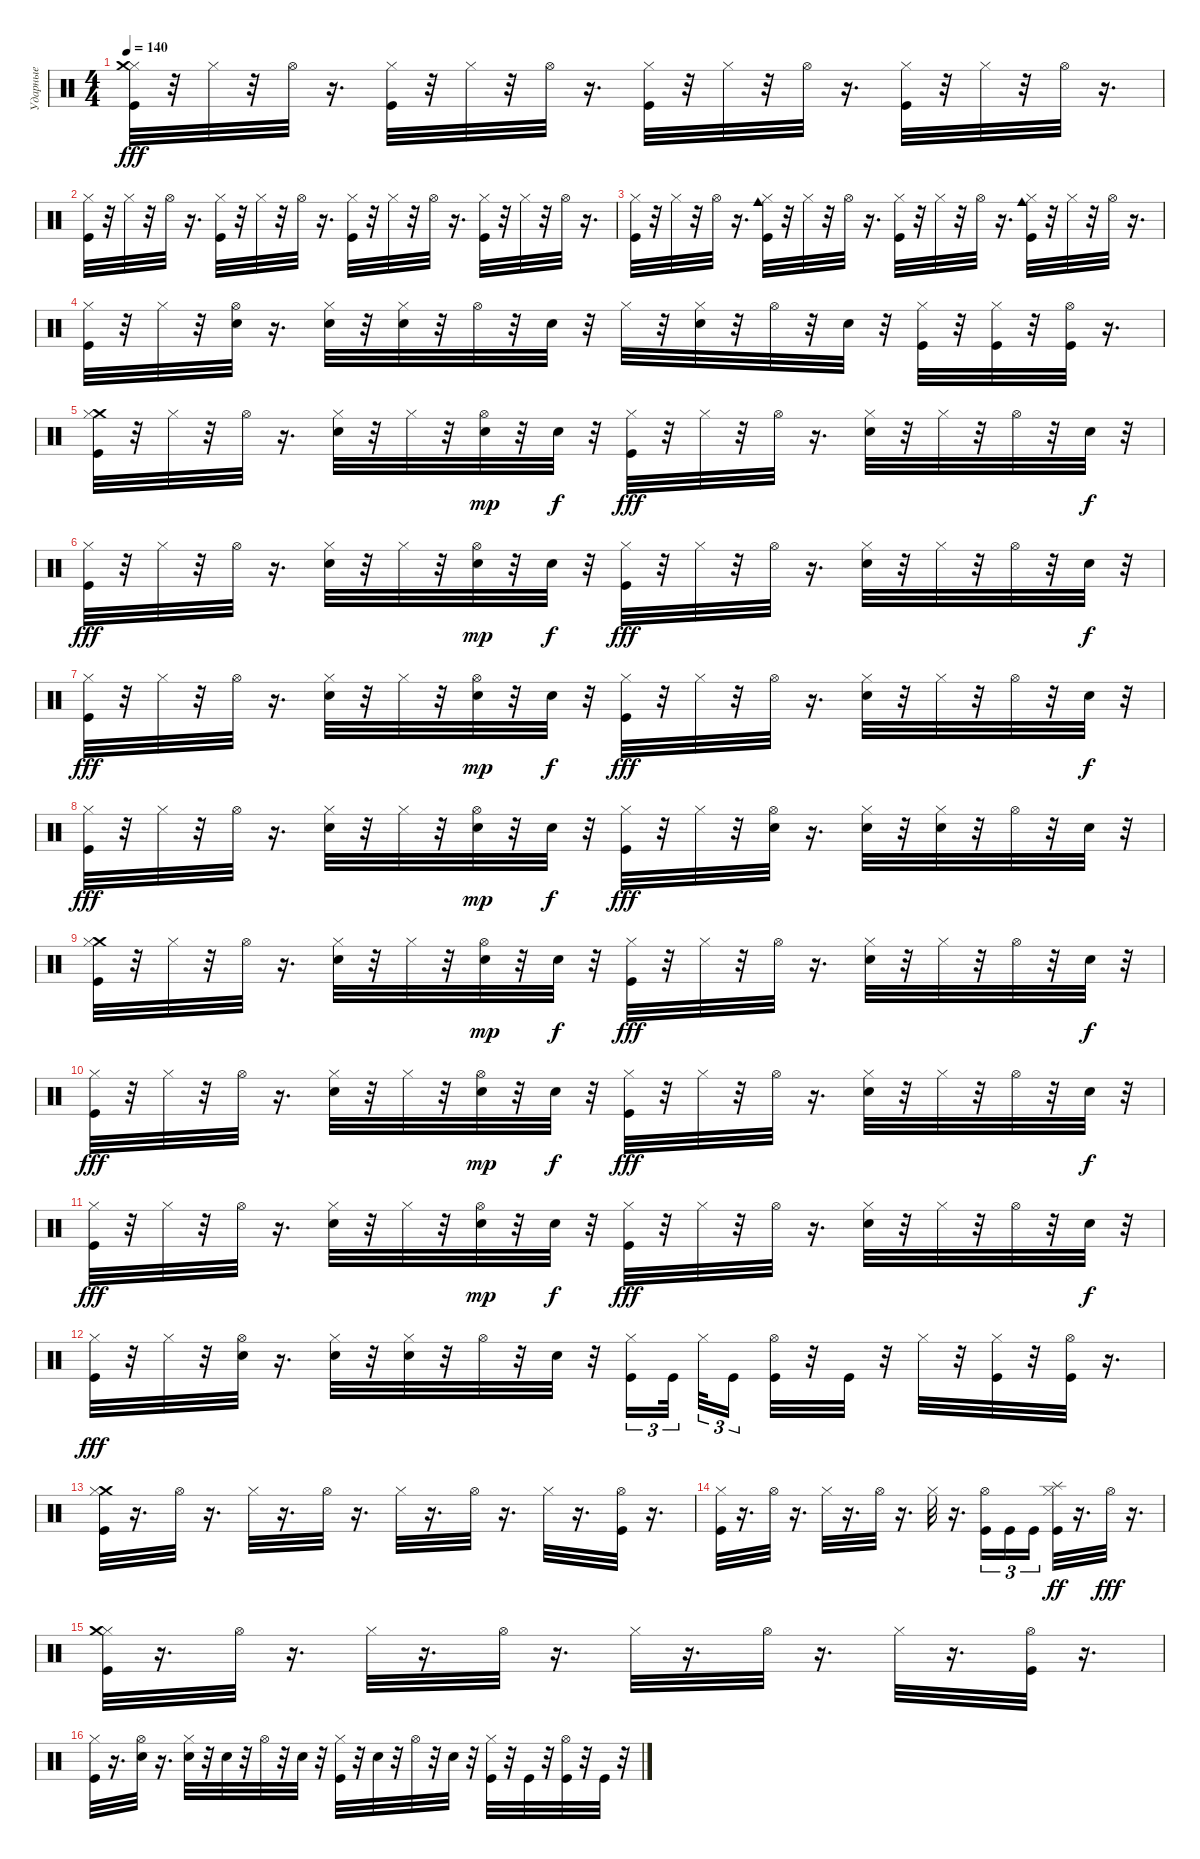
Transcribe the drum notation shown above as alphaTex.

\track ("Ударные" "Ударные") {instrument percussion}
\staff {score}
\articulation defaults
\ts (4 4)
\tempo 140
\clef neutral
\ks c
("Hi-Hat (closed)" "Crash medium (hit)" "Kick (hit)").32{dy fff} r.32 "Hi-Hat (closed)".32 r.32 "Hi-Hat (open)".32 r.16{d} ("Hi-Hat (closed)" "Kick (hit)").32 r.32 "Hi-Hat (closed)".32 r.32 "Hi-Hat (open)".32 r.16{d} ("Hi-Hat (closed)" "Kick (hit)").32 r.32 "Hi-Hat (closed)".32 r.32 "Hi-Hat (open)".32 r.16{d} ("Hi-Hat (closed)" "Kick (hit)").32 r.32 "Hi-Hat (closed)".32 r.32 "Hi-Hat (open)".32 r.16{d} |
("Kick (hit)" "Hi-Hat (closed)").32 r.32 "Hi-Hat (closed)".32 r.32 "Hi-Hat (open)".32 r.16{d} ("Hi-Hat (closed)" "Kick (hit)").32 r.32 "Hi-Hat (closed)".32 r.32 "Hi-Hat (open)".32 r.16{d} ("Hi-Hat (closed)" "Kick (hit)").32 r.32 "Hi-Hat (closed)".32 r.32 "Hi-Hat (open)".32 r.16{d} ("Hi-Hat (closed)" "Kick (hit)").32 r.32 "Hi-Hat (closed)".32 r.32 "Hi-Hat (open)".32 r.16{d} |
("Kick (hit)" "Hi-Hat (closed)").32 r.32 "Hi-Hat (closed)".32 r.32 "Hi-Hat (open)".32 r.16{d} ("Hi-Hat (closed)" "Kick (hit)" "Cowbell medium (hit)").32 r.32 "Hi-Hat (closed)".32 r.32 "Hi-Hat (open)".32 r.16{d} ("Hi-Hat (closed)" "Kick (hit)").32 r.32 "Hi-Hat (closed)".32 r.32 "Hi-Hat (open)".32 r.16{d} ("Hi-Hat (closed)" "Kick (hit)" "Cowbell medium (hit)").32 r.32 "Hi-Hat (closed)".32 r.32 "Hi-Hat (open)".32 r.16{d} |
("Kick (hit)" "Hi-Hat (closed)").32 r.32 "Hi-Hat (closed)".32 r.32 ("Hi-Hat (open)" "Electric Snare (hit)").32 r.16{d} ("Hi-Hat (closed)" "Electric Snare (hit)").32 r.32 ("Hi-Hat (closed)" "Electric Snare (hit)").32 r.32 "Hi-Hat (open)".32 r.32 "Electric Snare (hit)".32 r.32 "Hi-Hat (closed)".32 r.32 ("Hi-Hat (closed)" "Electric Snare (hit)").32 r.32 "Hi-Hat (open)".32 r.32 "Electric Snare (hit)".32 r.32 ("Hi-Hat (closed)" "Kick (hit)").32 r.32 ("Hi-Hat (closed)" "Kick (hit)").32 r.32 ("Hi-Hat (open)" "Kick (hit)").32 r.16{d} |
("Crash medium (hit)" "Kick (hit)" "Hi-Hat (closed)").32 r.32 "Hi-Hat (closed)".32 r.32 "Hi-Hat (open)".32 r.16{d} ("Electric Snare (hit)" "Hi-Hat (closed)").32 r.32 "Hi-Hat (closed)".32 r.32 ("Hi-Hat (open)" "Electric Snare (hit)").32{dy mp} r.32 "Electric Snare (hit)".32{dy f} r.32 ("Kick (hit)" "Hi-Hat (closed)").32{dy fff} r.32 "Hi-Hat (closed)".32 r.32 "Hi-Hat (open)".32 r.16{d} ("Electric Snare (hit)" "Hi-Hat (closed)").32 r.32 "Hi-Hat (closed)".32 r.32 "Hi-Hat (open)".32 r.32 "Electric Snare (hit)".32{dy f} r.32 |
("Hi-Hat (closed)" "Kick (hit)").32{dy fff} r.32 "Hi-Hat (closed)".32 r.32 "Hi-Hat (open)".32 r.16{d} ("Electric Snare (hit)" "Hi-Hat (closed)").32 r.32 "Hi-Hat (closed)".32 r.32 ("Hi-Hat (open)" "Electric Snare (hit)").32{dy mp} r.32 "Electric Snare (hit)".32{dy f} r.32 ("Kick (hit)" "Hi-Hat (closed)").32{dy fff} r.32 "Hi-Hat (closed)".32 r.32 "Hi-Hat (open)".32 r.16{d} ("Electric Snare (hit)" "Hi-Hat (closed)").32 r.32 "Hi-Hat (closed)".32 r.32 "Hi-Hat (open)".32 r.32 "Electric Snare (hit)".32{dy f} r.32 |
("Hi-Hat (closed)" "Kick (hit)").32{dy fff} r.32 "Hi-Hat (closed)".32 r.32 "Hi-Hat (open)".32 r.16{d} ("Electric Snare (hit)" "Hi-Hat (closed)").32 r.32 "Hi-Hat (closed)".32 r.32 ("Hi-Hat (open)" "Electric Snare (hit)").32{dy mp} r.32 "Electric Snare (hit)".32{dy f} r.32 ("Kick (hit)" "Hi-Hat (closed)").32{dy fff} r.32 "Hi-Hat (closed)".32 r.32 "Hi-Hat (open)".32 r.16{d} ("Electric Snare (hit)" "Hi-Hat (closed)").32 r.32 "Hi-Hat (closed)".32 r.32 "Hi-Hat (open)".32 r.32 "Electric Snare (hit)".32{dy f} r.32 |
("Hi-Hat (closed)" "Kick (hit)").32{dy fff} r.32 "Hi-Hat (closed)".32 r.32 "Hi-Hat (open)".32 r.16{d} ("Electric Snare (hit)" "Hi-Hat (closed)").32 r.32 "Hi-Hat (closed)".32 r.32 ("Hi-Hat (open)" "Electric Snare (hit)").32{dy mp} r.32 "Electric Snare (hit)".32{dy f} r.32 ("Kick (hit)" "Hi-Hat (closed)").32{dy fff} r.32 "Hi-Hat (closed)".32 r.32 ("Hi-Hat (open)" "Electric Snare (hit)").32 r.16{d} ("Hi-Hat (closed)" "Electric Snare (hit)").32 r.32 ("Hi-Hat (closed)" "Electric Snare (hit)").32 r.32 "Hi-Hat (open)".32 r.32 "Electric Snare (hit)".32 r.32 |
("Crash medium (hit)" "Kick (hit)" "Hi-Hat (closed)").32 r.32 "Hi-Hat (closed)".32 r.32 "Hi-Hat (open)".32 r.16{d} ("Electric Snare (hit)" "Hi-Hat (closed)").32 r.32 "Hi-Hat (closed)".32 r.32 ("Hi-Hat (open)" "Electric Snare (hit)").32{dy mp} r.32 "Electric Snare (hit)".32{dy f} r.32 ("Kick (hit)" "Hi-Hat (closed)").32{dy fff} r.32 "Hi-Hat (closed)".32 r.32 "Hi-Hat (open)".32 r.16{d} ("Electric Snare (hit)" "Hi-Hat (closed)").32 r.32 "Hi-Hat (closed)".32 r.32 "Hi-Hat (open)".32 r.32 "Electric Snare (hit)".32{dy f} r.32 |
("Hi-Hat (closed)" "Kick (hit)").32{dy fff} r.32 "Hi-Hat (closed)".32 r.32 "Hi-Hat (open)".32 r.16{d} ("Electric Snare (hit)" "Hi-Hat (closed)").32 r.32 "Hi-Hat (closed)".32 r.32 ("Hi-Hat (open)" "Electric Snare (hit)").32{dy mp} r.32 "Electric Snare (hit)".32{dy f} r.32 ("Kick (hit)" "Hi-Hat (closed)").32{dy fff} r.32 "Hi-Hat (closed)".32 r.32 "Hi-Hat (open)".32 r.16{d} ("Electric Snare (hit)" "Hi-Hat (closed)").32 r.32 "Hi-Hat (closed)".32 r.32 "Hi-Hat (open)".32 r.32 "Electric Snare (hit)".32{dy f} r.32 |
("Hi-Hat (closed)" "Kick (hit)").32{dy fff} r.32 "Hi-Hat (closed)".32 r.32 "Hi-Hat (open)".32 r.16{d} ("Electric Snare (hit)" "Hi-Hat (closed)").32 r.32 "Hi-Hat (closed)".32 r.32 ("Hi-Hat (open)" "Electric Snare (hit)").32{dy mp} r.32 "Electric Snare (hit)".32{dy f} r.32 ("Kick (hit)" "Hi-Hat (closed)").32{dy fff} r.32 "Hi-Hat (closed)".32 r.32 "Hi-Hat (open)".32 r.16{d} ("Electric Snare (hit)" "Hi-Hat (closed)").32 r.32 "Hi-Hat (closed)".32 r.32 "Hi-Hat (open)".32 r.32 "Electric Snare (hit)".32{dy f} r.32 |
("Hi-Hat (closed)" "Kick (hit)").32{dy fff} r.32 "Hi-Hat (closed)".32 r.32 ("Hi-Hat (open)" "Electric Snare (hit)").32 r.16{d} ("Hi-Hat (closed)" "Electric Snare (hit)").32 r.32 ("Hi-Hat (closed)" "Electric Snare (hit)").32 r.32 "Hi-Hat (open)".32 r.32 "Electric Snare (hit)".32 r.32 ("Hi-Hat (closed)" "Kick (hit)").16{tu (3 2)} "Kick (hit)".32{tu (3 2) beam splitsecondary} "Hi-Hat (closed)".32{tu (3 2)} "Kick (hit)".16{tu (3 2) beam splitsecondary} ("Hi-Hat (open)" "Kick (hit)").32 r.32 "Kick (hit)".32 r.32 "Hi-Hat (closed)".32 r.32 ("Hi-Hat (closed)" "Kick (hit)").32 r.32 ("Hi-Hat (open)" "Kick (hit)").32 r.16{d} |
("Crash medium (hit)" "Kick (hit)" "Hi-Hat (closed)").32 r.16{d} "Hi-Hat (open)".32 r.16{d} "Hi-Hat (closed)".32 r.16{d} "Hi-Hat (open)".32 r.16{d} "Hi-Hat (closed)".32 r.16{d} "Hi-Hat (open)".32 r.16{d} "Hi-Hat (closed)".32 r.16{d} ("Kick (hit)" "Hi-Hat (open)").32 r.16{d} |
("Kick (hit)" "Hi-Hat (closed)").32 r.16{d} "Hi-Hat (open)".32 r.16{d} "Hi-Hat (closed)".32 r.16{d} "Hi-Hat (open)".32 r.16{d} "Hi-Hat (closed)".32 r.16{d} ("Hi-Hat (open)" "Kick (hit)").16{tu (3 2)} "Kick (hit)".16{tu (3 2)} "Kick (hit)".16{tu (3 2)} ("Hi-Hat (closed)" "Kick (hit)" "Splash (hit)").32{dy ff} r.16{d} "Hi-Hat (open)".32{dy fff} r.16{d} |
("Hi-Hat (closed)" "Kick (hit)" "Crash medium (hit)").32 r.16{d} "Hi-Hat (open)".32 r.16{d} "Hi-Hat (closed)".32 r.16{d} "Hi-Hat (open)".32 r.16{d} "Hi-Hat (closed)".32 r.16{d} "Hi-Hat (open)".32 r.16{d} "Hi-Hat (closed)".32 r.16{d} ("Hi-Hat (open)" "Kick (hit)").32 r.16{d} |
("Hi-Hat (closed)" "Kick (hit)").32 r.16{d} ("Hi-Hat (open)" "Electric Snare (hit)").32 r.16{d} ("Hi-Hat (closed)" "Electric Snare (hit)").32 r.32 "Electric Snare (hit)".32 r.32 "Hi-Hat (open)".32 r.32 "Electric Snare (hit)".32 r.32 ("Hi-Hat (closed)" "Kick (hit)").32 r.32 "Electric Snare (hit)".32 r.32 "Hi-Hat (open)".32 r.32 "Electric Snare (hit)".32 r.32 ("Hi-Hat (closed)" "Kick (hit)").32 r.32 "Kick (hit)".32 r.32 ("Hi-Hat (open)" "Kick (hit)").32 r.32 "Kick (hit)".32 r.32
